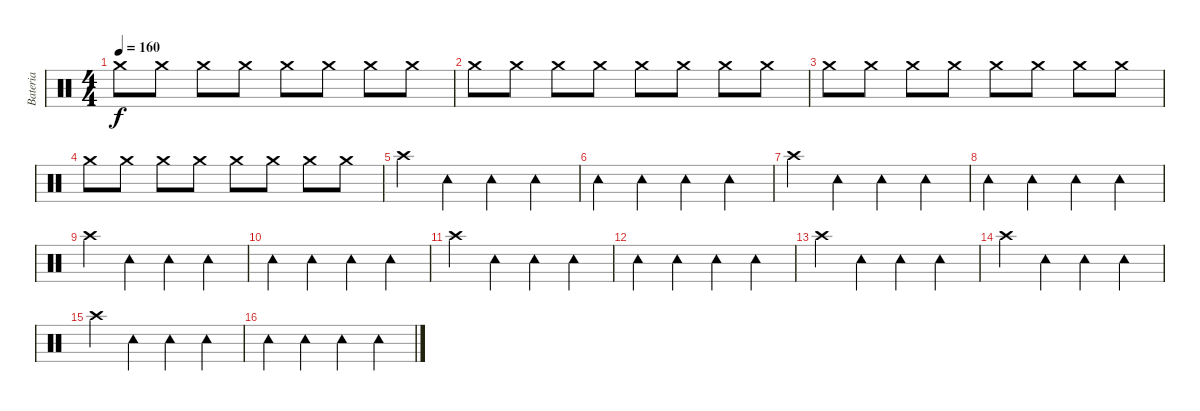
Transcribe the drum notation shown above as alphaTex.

\track ("Bateria" "Bateria") {instrument percussion}
\staff {score}
\articulation defaults
\ts (4 4)
\tempo 160
\clef neutral
\ks c "Crash medium (hit)".8{dy f} "Crash medium (hit)".8 "Crash medium (hit)".8 "Crash medium (hit)".8 "Crash medium (hit)".8 "Crash medium (hit)".8 "Crash medium (hit)".8 "Crash medium (hit)".8
|
"Crash medium (hit)".8 "Crash medium (hit)".8 "Crash medium (hit)".8 "Crash medium (hit)".8 "Crash medium (hit)".8 "Crash medium (hit)".8 "Crash medium (hit)".8 "Crash medium (hit)".8 |
"Crash medium (hit)".8 "Crash medium (hit)".8 "Crash medium (hit)".8 "Crash medium (hit)".8 "Crash medium (hit)".8 "Crash medium (hit)".8 "Crash medium (hit)".8 "Crash medium (hit)".8 |
"Crash medium (hit)".8 "Crash medium (hit)".8 "Crash medium (hit)".8 "Crash medium (hit)".8 "Crash medium (hit)".8 "Crash medium (hit)".8 "Crash medium (hit)".8 "Crash medium (hit)".8 |
"Crash high (hit)".4 "Tambourine (hit)".4 "Tambourine (hit)".4 "Tambourine (hit)".4 |
"Tambourine (hit)".4 "Tambourine (hit)".4 "Tambourine (hit)".4 "Tambourine (hit)".4 |
"Crash high (hit)".4 "Tambourine (hit)".4 "Tambourine (hit)".4 "Tambourine (hit)".4 |
"Tambourine (hit)".4 "Tambourine (hit)".4 "Tambourine (hit)".4 "Tambourine (hit)".4 |
"Crash high (hit)".4 "Tambourine (hit)".4 "Tambourine (hit)".4 "Tambourine (hit)".4 |
"Tambourine (hit)".4 "Tambourine (hit)".4 "Tambourine (hit)".4 "Tambourine (hit)".4 |
"Crash high (hit)".4 "Tambourine (hit)".4 "Tambourine (hit)".4 "Tambourine (hit)".4 |
"Tambourine (hit)".4 "Tambourine (hit)".4 "Tambourine (hit)".4 "Tambourine (hit)".4 |
"Crash high (hit)".4 "Tambourine (hit)".4 "Tambourine (hit)".4 "Tambourine (hit)".4 |
"Crash high (hit)".4 "Tambourine (hit)".4 "Tambourine (hit)".4 "Tambourine (hit)".4 |
"Crash high (hit)".4 "Tambourine (hit)".4 "Tambourine (hit)".4 "Tambourine (hit)".4 |
"Tambourine (hit)".4 "Tambourine (hit)".4 "Tambourine (hit)".4 "Tambourine (hit)".4
